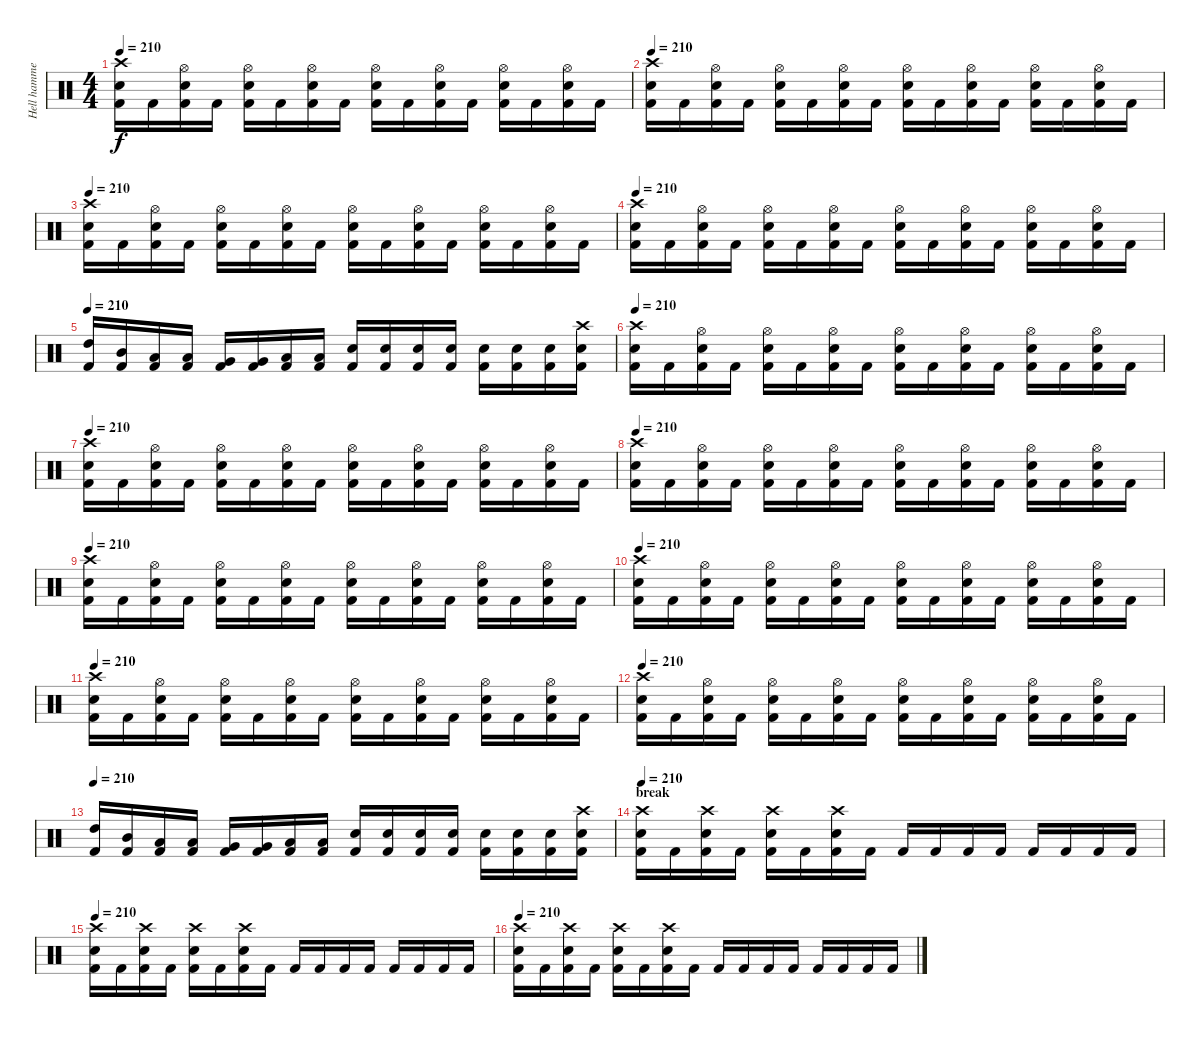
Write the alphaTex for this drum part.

\track ("Hell hammers" "Hell hamme") {instrument percussion}
\staff {score}
\articulation defaults
\ts (4 4)
\tempo 210
\clef neutral
\ks c
("Crash high (hit)" "Snare (hit) 2" "Kick (hit) 2").16{dy f} "Kick (hit) 2".16 ("Hi-Hat (open)" "Snare (hit) 2" "Kick (hit) 2").16 "Kick (hit) 2".16 ("Hi-Hat (open)" "Snare (hit) 2" "Kick (hit) 2").16 "Kick (hit) 2".16 ("Hi-Hat (open)" "Snare (hit) 2" "Kick (hit) 2").16 "Kick (hit) 2".16 ("Hi-Hat (open)" "Snare (hit) 2" "Kick (hit) 2").16 "Kick (hit) 2".16 ("Hi-Hat (open)" "Snare (hit) 2" "Kick (hit) 2").16 "Kick (hit) 2".16 ("Hi-Hat (open)" "Snare (hit) 2" "Kick (hit) 2").16 "Kick (hit) 2".16 ("Hi-Hat (open)" "Snare (hit) 2" "Kick (hit) 2").16 "Kick (hit) 2".16 |
\tempo 210
("Crash high (hit)" "Snare (hit) 2" "Kick (hit) 2").16 "Kick (hit) 2".16 ("Hi-Hat (open)" "Snare (hit) 2" "Kick (hit) 2").16 "Kick (hit) 2".16 ("Hi-Hat (open)" "Snare (hit) 2" "Kick (hit) 2").16 "Kick (hit) 2".16 ("Hi-Hat (open)" "Snare (hit) 2" "Kick (hit) 2").16 "Kick (hit) 2".16 ("Hi-Hat (open)" "Snare (hit) 2" "Kick (hit) 2").16 "Kick (hit) 2".16 ("Hi-Hat (open)" "Snare (hit) 2" "Kick (hit) 2").16 "Kick (hit) 2".16 ("Hi-Hat (open)" "Snare (hit) 2" "Kick (hit) 2").16 "Kick (hit) 2".16 ("Hi-Hat (open)" "Snare (hit) 2" "Kick (hit) 2").16 "Kick (hit) 2".16 |
\tempo 210
("Crash high (hit)" "Snare (hit) 2" "Kick (hit) 2").16 "Kick (hit) 2".16 ("Hi-Hat (open)" "Snare (hit) 2" "Kick (hit) 2").16 "Kick (hit) 2".16 ("Hi-Hat (open)" "Snare (hit) 2" "Kick (hit) 2").16 "Kick (hit) 2".16 ("Hi-Hat (open)" "Snare (hit) 2" "Kick (hit) 2").16 "Kick (hit) 2".16 ("Hi-Hat (open)" "Snare (hit) 2" "Kick (hit) 2").16 "Kick (hit) 2".16 ("Hi-Hat (open)" "Snare (hit) 2" "Kick (hit) 2").16 "Kick (hit) 2".16 ("Hi-Hat (open)" "Snare (hit) 2" "Kick (hit) 2").16 "Kick (hit) 2".16 ("Hi-Hat (open)" "Snare (hit) 2" "Kick (hit) 2").16 "Kick (hit) 2".16 |
\tempo 210
("Crash high (hit)" "Snare (hit) 2" "Kick (hit) 2").16 "Kick (hit) 2".16 ("Hi-Hat (open)" "Snare (hit) 2" "Kick (hit) 2").16 "Kick (hit) 2".16 ("Hi-Hat (open)" "Snare (hit) 2" "Kick (hit) 2").16 "Kick (hit) 2".16 ("Hi-Hat (open)" "Snare (hit) 2" "Kick (hit) 2").16 "Kick (hit) 2".16 ("Hi-Hat (open)" "Snare (hit) 2" "Kick (hit) 2").16 "Kick (hit) 2".16 ("Hi-Hat (open)" "Snare (hit) 2" "Kick (hit) 2").16 "Kick (hit) 2".16 ("Hi-Hat (open)" "Snare (hit) 2" "Kick (hit) 2").16 "Kick (hit) 2".16 ("Hi-Hat (open)" "Snare (hit) 2" "Kick (hit) 2").16 "Kick (hit) 2".16 |
\tempo 210
("High Tom (hit)" "Kick (hit) 2").16 ("Mid Tom (hit)" "Kick (hit) 2").16 ("Low Tom (hit)" "Kick (hit) 2").16 ("Low Tom (hit)" "Kick (hit) 2").16 ("Very Low Tom (hit)" "Kick (hit) 2").16 ("Very Low Tom (hit)" "Kick (hit) 2").16 ("Low Floor Tom (hit)" "Kick (hit) 2").16 ("Low Floor Tom (hit)" "Kick (hit) 2").16 ("Snare (hit) 2" "Kick (hit) 2").16 ("Snare (hit) 2" "Kick (hit) 2").16 ("Snare (hit) 2" "Kick (hit) 2").16 ("Snare (hit) 2" "Kick (hit) 2").16 ("Snare (hit) 2" "Kick (hit) 2").16 ("Snare (hit) 2" "Kick (hit) 2").16 ("Snare (hit) 2" "Kick (hit) 2").16 ("Crash high (hit)" "Snare (hit) 2" "Kick (hit) 2").16 |
\tempo 210
("Crash high (hit)" "Snare (hit) 2" "Kick (hit) 2").16 "Kick (hit) 2".16 ("Hi-Hat (open)" "Snare (hit) 2" "Kick (hit) 2").16 "Kick (hit) 2".16 ("Hi-Hat (open)" "Snare (hit) 2" "Kick (hit) 2").16 "Kick (hit) 2".16 ("Hi-Hat (open)" "Snare (hit) 2" "Kick (hit) 2").16 "Kick (hit) 2".16 ("Hi-Hat (open)" "Snare (hit) 2" "Kick (hit) 2").16 "Kick (hit) 2".16 ("Hi-Hat (open)" "Snare (hit) 2" "Kick (hit) 2").16 "Kick (hit) 2".16 ("Hi-Hat (open)" "Snare (hit) 2" "Kick (hit) 2").16 "Kick (hit) 2".16 ("Hi-Hat (open)" "Snare (hit) 2" "Kick (hit) 2").16 "Kick (hit) 2".16 |
\tempo 210
("Crash high (hit)" "Snare (hit) 2" "Kick (hit) 2").16 "Kick (hit) 2".16 ("Hi-Hat (open)" "Snare (hit) 2" "Kick (hit) 2").16 "Kick (hit) 2".16 ("Hi-Hat (open)" "Snare (hit) 2" "Kick (hit) 2").16 "Kick (hit) 2".16 ("Hi-Hat (open)" "Snare (hit) 2" "Kick (hit) 2").16 "Kick (hit) 2".16 ("Hi-Hat (open)" "Snare (hit) 2" "Kick (hit) 2").16 "Kick (hit) 2".16 ("Hi-Hat (open)" "Snare (hit) 2" "Kick (hit) 2").16 "Kick (hit) 2".16 ("Hi-Hat (open)" "Snare (hit) 2" "Kick (hit) 2").16 "Kick (hit) 2".16 ("Hi-Hat (open)" "Snare (hit) 2" "Kick (hit) 2").16 "Kick (hit) 2".16 |
\tempo 210
("Crash high (hit)" "Snare (hit) 2" "Kick (hit) 2").16 "Kick (hit) 2".16 ("Hi-Hat (open)" "Snare (hit) 2" "Kick (hit) 2").16 "Kick (hit) 2".16 ("Hi-Hat (open)" "Snare (hit) 2" "Kick (hit) 2").16 "Kick (hit) 2".16 ("Hi-Hat (open)" "Snare (hit) 2" "Kick (hit) 2").16 "Kick (hit) 2".16 ("Hi-Hat (open)" "Snare (hit) 2" "Kick (hit) 2").16 "Kick (hit) 2".16 ("Hi-Hat (open)" "Snare (hit) 2" "Kick (hit) 2").16 "Kick (hit) 2".16 ("Hi-Hat (open)" "Snare (hit) 2" "Kick (hit) 2").16 "Kick (hit) 2".16 ("Hi-Hat (open)" "Snare (hit) 2" "Kick (hit) 2").16 "Kick (hit) 2".16 |
\tempo 210
("Crash high (hit)" "Snare (hit) 2" "Kick (hit) 2").16 "Kick (hit) 2".16 ("Hi-Hat (open)" "Snare (hit) 2" "Kick (hit) 2").16 "Kick (hit) 2".16 ("Hi-Hat (open)" "Snare (hit) 2" "Kick (hit) 2").16 "Kick (hit) 2".16 ("Hi-Hat (open)" "Snare (hit) 2" "Kick (hit) 2").16 "Kick (hit) 2".16 ("Hi-Hat (open)" "Snare (hit) 2" "Kick (hit) 2").16 "Kick (hit) 2".16 ("Hi-Hat (open)" "Snare (hit) 2" "Kick (hit) 2").16 "Kick (hit) 2".16 ("Hi-Hat (open)" "Snare (hit) 2" "Kick (hit) 2").16 "Kick (hit) 2".16 ("Hi-Hat (open)" "Snare (hit) 2" "Kick (hit) 2").16 "Kick (hit) 2".16 |
\tempo 210
("Crash high (hit)" "Snare (hit) 2" "Kick (hit) 2").16 "Kick (hit) 2".16 ("Hi-Hat (open)" "Snare (hit) 2" "Kick (hit) 2").16 "Kick (hit) 2".16 ("Hi-Hat (open)" "Snare (hit) 2" "Kick (hit) 2").16 "Kick (hit) 2".16 ("Hi-Hat (open)" "Snare (hit) 2" "Kick (hit) 2").16 "Kick (hit) 2".16 ("Hi-Hat (open)" "Snare (hit) 2" "Kick (hit) 2").16 "Kick (hit) 2".16 ("Hi-Hat (open)" "Snare (hit) 2" "Kick (hit) 2").16 "Kick (hit) 2".16 ("Hi-Hat (open)" "Snare (hit) 2" "Kick (hit) 2").16 "Kick (hit) 2".16 ("Hi-Hat (open)" "Snare (hit) 2" "Kick (hit) 2").16 "Kick (hit) 2".16 |
\tempo 210
("Crash high (hit)" "Snare (hit) 2" "Kick (hit) 2").16 "Kick (hit) 2".16 ("Hi-Hat (open)" "Snare (hit) 2" "Kick (hit) 2").16 "Kick (hit) 2".16 ("Hi-Hat (open)" "Snare (hit) 2" "Kick (hit) 2").16 "Kick (hit) 2".16 ("Hi-Hat (open)" "Snare (hit) 2" "Kick (hit) 2").16 "Kick (hit) 2".16 ("Hi-Hat (open)" "Snare (hit) 2" "Kick (hit) 2").16 "Kick (hit) 2".16 ("Hi-Hat (open)" "Snare (hit) 2" "Kick (hit) 2").16 "Kick (hit) 2".16 ("Hi-Hat (open)" "Snare (hit) 2" "Kick (hit) 2").16 "Kick (hit) 2".16 ("Hi-Hat (open)" "Snare (hit) 2" "Kick (hit) 2").16 "Kick (hit) 2".16 |
\tempo 210
("Crash high (hit)" "Snare (hit) 2" "Kick (hit) 2").16 "Kick (hit) 2".16 ("Hi-Hat (open)" "Snare (hit) 2" "Kick (hit) 2").16 "Kick (hit) 2".16 ("Hi-Hat (open)" "Snare (hit) 2" "Kick (hit) 2").16 "Kick (hit) 2".16 ("Hi-Hat (open)" "Snare (hit) 2" "Kick (hit) 2").16 "Kick (hit) 2".16 ("Hi-Hat (open)" "Snare (hit) 2" "Kick (hit) 2").16 "Kick (hit) 2".16 ("Hi-Hat (open)" "Snare (hit) 2" "Kick (hit) 2").16 "Kick (hit) 2".16 ("Hi-Hat (open)" "Snare (hit) 2" "Kick (hit) 2").16 "Kick (hit) 2".16 ("Hi-Hat (open)" "Snare (hit) 2" "Kick (hit) 2").16 "Kick (hit) 2".16 |
\tempo 210
("High Tom (hit)" "Kick (hit) 2").16 ("Mid Tom (hit)" "Kick (hit) 2").16 ("Low Tom (hit)" "Kick (hit) 2").16 ("Low Tom (hit)" "Kick (hit) 2").16 ("Very Low Tom (hit)" "Kick (hit) 2").16 ("Very Low Tom (hit)" "Kick (hit) 2").16 ("Low Floor Tom (hit)" "Kick (hit) 2").16 ("Low Floor Tom (hit)" "Kick (hit) 2").16 ("Snare (hit) 2" "Kick (hit) 2").16 ("Snare (hit) 2" "Kick (hit) 2").16 ("Snare (hit) 2" "Kick (hit) 2").16 ("Snare (hit) 2" "Kick (hit) 2").16 ("Snare (hit) 2" "Kick (hit) 2").16 ("Snare (hit) 2" "Kick (hit) 2").16 ("Snare (hit) 2" "Kick (hit) 2").16 ("Crash high (hit)" "Snare (hit) 2" "Kick (hit) 2").16 |
\section ("" "break")
\tempo 210
("Crash high (hit)" "Snare (hit) 2" "Kick (hit) 2").16 "Kick (hit) 2".16 ("Crash high (hit)" "Snare (hit) 2" "Kick (hit) 2").16 "Kick (hit) 2".16 ("Crash high (hit)" "Snare (hit) 2" "Kick (hit) 2").16 "Kick (hit) 2".16 ("Crash high (hit)" "Snare (hit) 2" "Kick (hit) 2").16 "Kick (hit) 2".16 "Kick (hit) 2".16 "Kick (hit) 2".16 "Kick (hit) 2".16 "Kick (hit) 2".16 "Kick (hit) 2".16 "Kick (hit) 2".16 "Kick (hit) 2".16 "Kick (hit) 2".16 |
\tempo 210
("Crash high (hit)" "Snare (hit) 2" "Kick (hit) 2").16 "Kick (hit) 2".16 ("Crash high (hit)" "Snare (hit) 2" "Kick (hit) 2").16 "Kick (hit) 2".16 ("Crash high (hit)" "Snare (hit) 2" "Kick (hit) 2").16 "Kick (hit) 2".16 ("Crash high (hit)" "Snare (hit) 2" "Kick (hit) 2").16 "Kick (hit) 2".16 "Kick (hit) 2".16 "Kick (hit) 2".16 "Kick (hit) 2".16 "Kick (hit) 2".16 "Kick (hit) 2".16 "Kick (hit) 2".16 "Kick (hit) 2".16 "Kick (hit) 2".16 |
\tempo 210
("Crash high (hit)" "Snare (hit) 2" "Kick (hit) 2").16 "Kick (hit) 2".16 ("Crash high (hit)" "Snare (hit) 2" "Kick (hit) 2").16 "Kick (hit) 2".16 ("Crash high (hit)" "Snare (hit) 2" "Kick (hit) 2").16 "Kick (hit) 2".16 ("Crash high (hit)" "Snare (hit) 2" "Kick (hit) 2").16 "Kick (hit) 2".16 "Kick (hit) 2".16 "Kick (hit) 2".16 "Kick (hit) 2".16 "Kick (hit) 2".16 "Kick (hit) 2".16 "Kick (hit) 2".16 "Kick (hit) 2".16 "Kick (hit) 2".16
